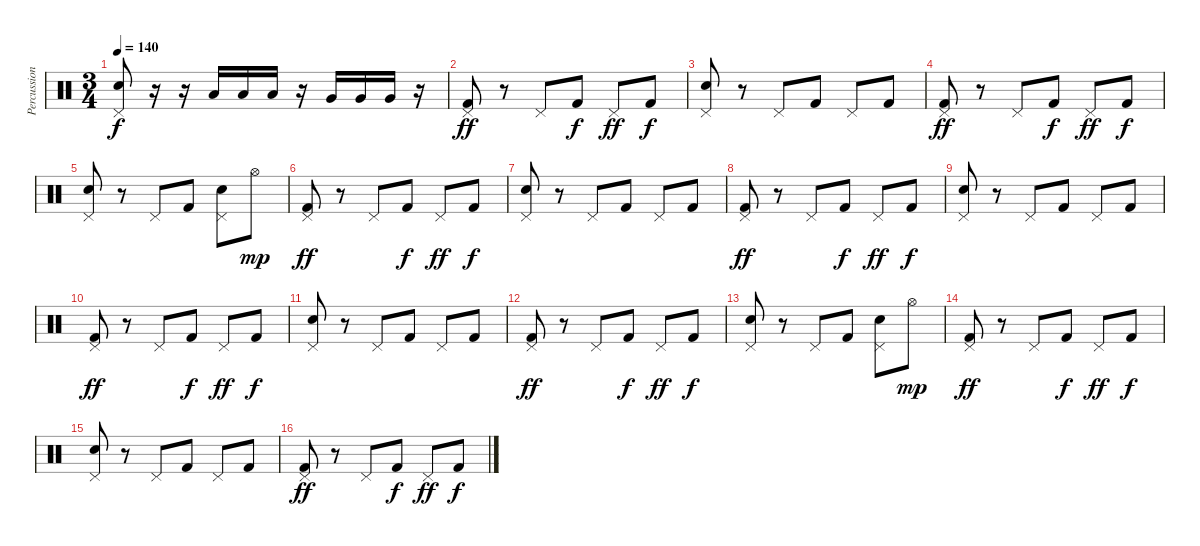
\track ("Percussion" "Percussion") {instrument percussion}
\staff {score}
\articulation defaults
\ts (3 4)
\tempo 140
\clef neutral
\ks c
("Pedal Hi-Hat (hit)" "Electric Snare (hit)").8{dy f} r.16 r.16 "Low Tom (hit)".16 "Low Tom (hit)".16 "Low Tom (hit)".16 r.16 "Very Low Tom (hit)".16 "Very Low Tom (hit)".16 "Very Low Tom (hit)".16 r.16 |
("Pedal Hi-Hat (hit)" "Kick (hit) 2").8{dy ff} r.8 "Pedal Hi-Hat (hit)".8 "Kick (hit) 2".8{dy f} "Pedal Hi-Hat (hit)".8{dy ff} "Kick (hit) 2".8{dy f} |
("Pedal Hi-Hat (hit)" "Electric Snare (hit)").8 r.8 "Pedal Hi-Hat (hit)".8 "Kick (hit) 2".8 "Pedal Hi-Hat (hit)".8 "Kick (hit) 2".8 |
("Pedal Hi-Hat (hit)" "Kick (hit) 2").8{dy ff} r.8 "Pedal Hi-Hat (hit)".8 "Kick (hit) 2".8{dy f} "Pedal Hi-Hat (hit)".8{dy ff} "Kick (hit) 2".8{dy f} |
("Pedal Hi-Hat (hit)" "Electric Snare (hit)").8 r.8 "Pedal Hi-Hat (hit)".8 "Kick (hit) 2".8 ("Pedal Hi-Hat (hit)" "Electric Snare (hit)").8 "Hi-Hat (open)".8{dy mp} |
("Pedal Hi-Hat (hit)" "Kick (hit) 2").8{dy ff} r.8 "Pedal Hi-Hat (hit)".8 "Kick (hit) 2".8{dy f} "Pedal Hi-Hat (hit)".8{dy ff} "Kick (hit) 2".8{dy f} |
("Pedal Hi-Hat (hit)" "Electric Snare (hit)").8 r.8 "Pedal Hi-Hat (hit)".8 "Kick (hit) 2".8 "Pedal Hi-Hat (hit)".8 "Kick (hit) 2".8 |
("Pedal Hi-Hat (hit)" "Kick (hit) 2").8{dy ff} r.8 "Pedal Hi-Hat (hit)".8 "Kick (hit) 2".8{dy f} "Pedal Hi-Hat (hit)".8{dy ff} "Kick (hit) 2".8{dy f} |
("Pedal Hi-Hat (hit)" "Electric Snare (hit)").8 r.8 "Pedal Hi-Hat (hit)".8 "Kick (hit) 2".8 "Pedal Hi-Hat (hit)".8 "Kick (hit) 2".8 |
("Pedal Hi-Hat (hit)" "Kick (hit) 2").8{dy ff} r.8 "Pedal Hi-Hat (hit)".8 "Kick (hit) 2".8{dy f} "Pedal Hi-Hat (hit)".8{dy ff} "Kick (hit) 2".8{dy f} |
("Pedal Hi-Hat (hit)" "Electric Snare (hit)").8 r.8 "Pedal Hi-Hat (hit)".8 "Kick (hit) 2".8 "Pedal Hi-Hat (hit)".8 "Kick (hit) 2".8 |
("Pedal Hi-Hat (hit)" "Kick (hit) 2").8{dy ff} r.8 "Pedal Hi-Hat (hit)".8 "Kick (hit) 2".8{dy f} "Pedal Hi-Hat (hit)".8{dy ff} "Kick (hit) 2".8{dy f} |
("Pedal Hi-Hat (hit)" "Electric Snare (hit)").8 r.8 "Pedal Hi-Hat (hit)".8 "Kick (hit) 2".8 ("Pedal Hi-Hat (hit)" "Electric Snare (hit)").8 "Hi-Hat (open)".8{dy mp} |
("Pedal Hi-Hat (hit)" "Kick (hit) 2").8{dy ff} r.8 "Pedal Hi-Hat (hit)".8 "Kick (hit) 2".8{dy f} "Pedal Hi-Hat (hit)".8{dy ff} "Kick (hit) 2".8{dy f} |
("Pedal Hi-Hat (hit)" "Electric Snare (hit)").8 r.8 "Pedal Hi-Hat (hit)".8 "Kick (hit) 2".8 "Pedal Hi-Hat (hit)".8 "Kick (hit) 2".8 |
("Pedal Hi-Hat (hit)" "Kick (hit) 2").8{dy ff} r.8 "Pedal Hi-Hat (hit)".8 "Kick (hit) 2".8{dy f} "Pedal Hi-Hat (hit)".8{dy ff} "Kick (hit) 2".8{dy f}
